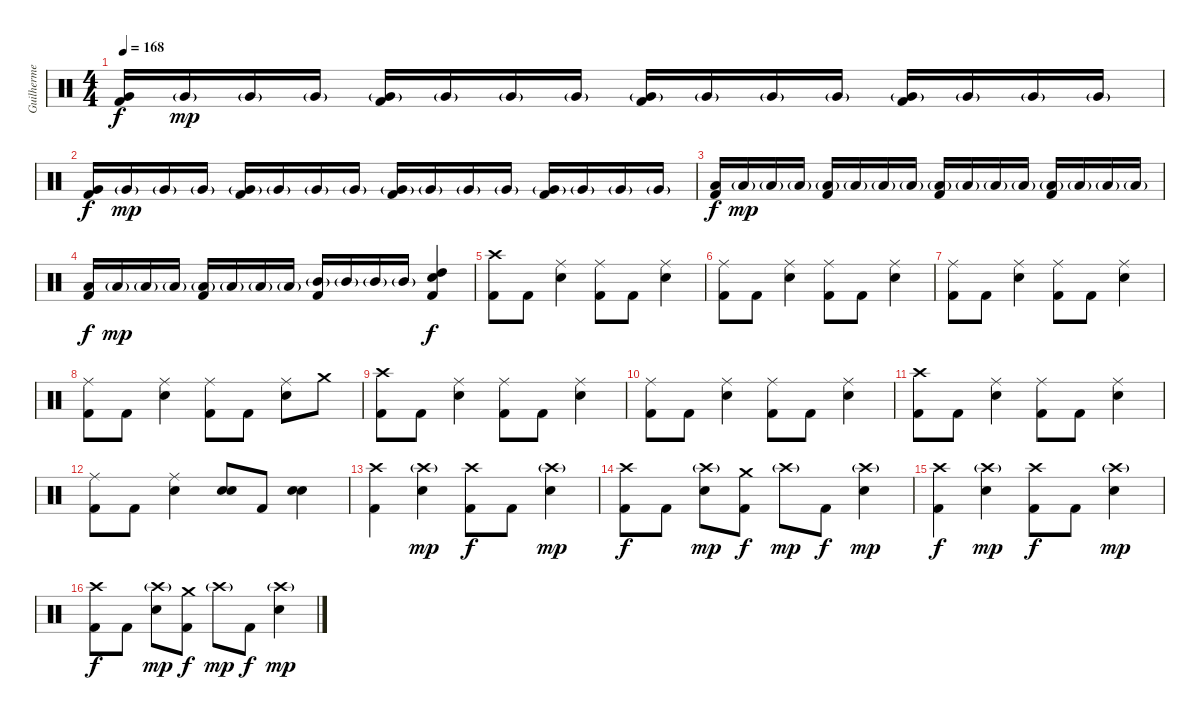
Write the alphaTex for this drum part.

\track ("Guilherme" "Guilherme") {instrument percussion}
\staff {score}
\articulation defaults
\ts (4 4)
\tempo 168
\clef neutral
\ks c
("Very Low Tom (hit)" "Kick (hit) 2").16{dy f} "Very Low Tom (hit)"{g}.16{dy mp} "Very Low Tom (hit)"{g}.16 "Very Low Tom (hit)"{g}.16 ("Very Low Tom (hit)"{g} "Kick (hit) 2").16 "Very Low Tom (hit)"{g}.16 "Very Low Tom (hit)"{g}.16 "Very Low Tom (hit)"{g}.16 ("Very Low Tom (hit)"{g} "Kick (hit) 2").16 "Very Low Tom (hit)"{g}.16 "Very Low Tom (hit)"{g}.16 "Very Low Tom (hit)"{g}.16 ("Very Low Tom (hit)"{g} "Kick (hit) 2").16 "Very Low Tom (hit)"{g}.16 "Very Low Tom (hit)"{g}.16 "Very Low Tom (hit)"{g}.16 |
("Very Low Tom (hit)" "Kick (hit) 2").16{dy f} "Very Low Tom (hit)"{g}.16{dy mp} "Very Low Tom (hit)"{g}.16 "Very Low Tom (hit)"{g}.16 ("Very Low Tom (hit)"{g} "Kick (hit) 2").16 "Very Low Tom (hit)"{g}.16 "Very Low Tom (hit)"{g}.16 "Very Low Tom (hit)"{g}.16 ("Very Low Tom (hit)"{g} "Kick (hit) 2").16 "Very Low Tom (hit)"{g}.16 "Very Low Tom (hit)"{g}.16 "Very Low Tom (hit)"{g}.16 ("Very Low Tom (hit)"{g} "Kick (hit) 2").16 "Very Low Tom (hit)"{g}.16 "Very Low Tom (hit)"{g}.16 "Very Low Tom (hit)"{g}.16 |
("Low Tom (hit)" "Kick (hit) 2").16{dy f} "Low Tom (hit)"{g}.16{dy mp} "Low Tom (hit)"{g}.16 "Low Tom (hit)"{g}.16 ("Low Tom (hit)"{g} "Kick (hit) 2").16 "Low Tom (hit)"{g}.16 "Low Tom (hit)"{g}.16 "Low Tom (hit)"{g}.16 ("Low Tom (hit)"{g} "Kick (hit) 2").16 "Low Tom (hit)"{g}.16 "Low Tom (hit)"{g}.16 "Low Tom (hit)"{g}.16 ("Low Tom (hit)"{g} "Kick (hit) 2").16 "Low Tom (hit)"{g}.16 "Low Tom (hit)"{g}.16 "Low Tom (hit)"{g}.16 |
("Low Tom (hit)" "Kick (hit) 2").16{dy f} "Low Tom (hit)"{g}.16{dy mp} "Low Tom (hit)"{g}.16 "Low Tom (hit)"{g}.16 ("Low Tom (hit)"{g} "Kick (hit) 2").16 "Low Tom (hit)"{g}.16 "Low Tom (hit)"{g}.16 "Low Tom (hit)"{g}.16 ("Mid Tom (hit)"{g} "Kick (hit) 2").16 "Mid Tom (hit)"{g}.16 "Mid Tom (hit)"{g}.16 "Mid Tom (hit)"{g}.16 ("High Tom (hit)" "Snare (hit) 2" "Kick (hit) 2").4{dy f} |
("Crash high (hit)" "Kick (hit) 2").8 "Kick (hit) 2".8 ("Ride (middle)" "Snare (hit) 2").4 ("Ride (middle)" "Kick (hit) 2").8 "Kick (hit) 2".8 ("Ride (middle)" "Snare (hit) 2").4 |
("Ride (middle)" "Kick (hit) 2").8 "Kick (hit) 2".8 ("Ride (middle)" "Snare (hit) 2").4 ("Ride (middle)" "Kick (hit) 2").8 "Kick (hit) 2".8 ("Ride (middle)" "Snare (hit) 2").4 |
("Ride (middle)" "Kick (hit) 2").8 "Kick (hit) 2".8 ("Ride (middle)" "Snare (hit) 2").4 ("Ride (middle)" "Kick (hit) 2").8 "Kick (hit) 2".8 ("Ride (middle)" "Snare (hit) 2").4 |
("Ride (middle)" "Kick (hit) 2").8 "Kick (hit) 2".8 ("Ride (middle)" "Snare (hit) 2").4 ("Ride (middle)" "Kick (hit) 2").8 "Kick (hit) 2".8 ("Ride (middle)" "Snare (hit) 2").8 "Crash medium (hit)".8 |
("Crash high (hit)" "Kick (hit) 2").8 "Kick (hit) 2".8 ("Ride (middle)" "Snare (hit) 2").4 ("Ride (middle)" "Kick (hit) 2").8 "Kick (hit) 2".8 ("Ride (middle)" "Snare (hit) 2").4 |
("Ride (middle)" "Kick (hit) 2").8 "Kick (hit) 2".8 ("Ride (middle)" "Snare (hit) 2").4 ("Ride (middle)" "Kick (hit) 2").8 "Kick (hit) 2".8 ("Ride (middle)" "Snare (hit) 2").4 |
("Crash high (hit)" "Kick (hit) 2").8 "Kick (hit) 2".8 ("Ride (middle)" "Snare (hit) 2").4 ("Ride (middle)" "Kick (hit) 2").8 "Kick (hit) 2".8 ("Ride (middle)" "Snare (hit) 2").4 |
("Ride (middle)" "Kick (hit) 2").8 "Kick (hit) 2".8 ("Ride (middle)" "Snare (hit) 2").4 ("Snare (hit) 2" "Snare (hit) 2").8{bd 240} "Kick (hit) 2".8 ("Snare (hit) 2" "Snare (hit) 2").4 |
("Crash high (hit)" "Kick (hit) 2").4 ("Crash high (hit)"{g} "Snare (hit) 2").4{dy mp} ("Crash high (hit)" "Kick (hit) 2").8{dy f} "Kick (hit) 2".8 ("Crash high (hit)"{g} "Snare (hit) 2").4{dy mp} |
("Crash high (hit)" "Kick (hit) 2").8{dy f} "Kick (hit) 2".8 ("Crash high (hit)"{g} "Snare (hit) 2").8{dy mp} ("Crash medium (hit)" "Kick (hit) 2").8{dy f} "Crash high (hit)"{g}.8{dy mp} "Kick (hit) 2".8{dy f} ("Crash high (hit)"{g} "Snare (hit) 2").4{dy mp} |
("Crash high (hit)" "Kick (hit) 2").4{dy f} ("Crash high (hit)"{g} "Snare (hit) 2").4{dy mp} ("Crash high (hit)" "Kick (hit) 2").8{dy f} "Kick (hit) 2".8 ("Crash high (hit)"{g} "Snare (hit) 2").4{dy mp} |
("Crash high (hit)" "Kick (hit) 2").8{dy f} "Kick (hit) 2".8 ("Crash high (hit)"{g} "Snare (hit) 2").8{dy mp} ("Crash medium (hit)" "Kick (hit) 2").8{dy f} "Crash high (hit)"{g}.8{dy mp} "Kick (hit) 2".8{dy f} ("Crash high (hit)"{g} "Snare (hit) 2").4{dy mp}
